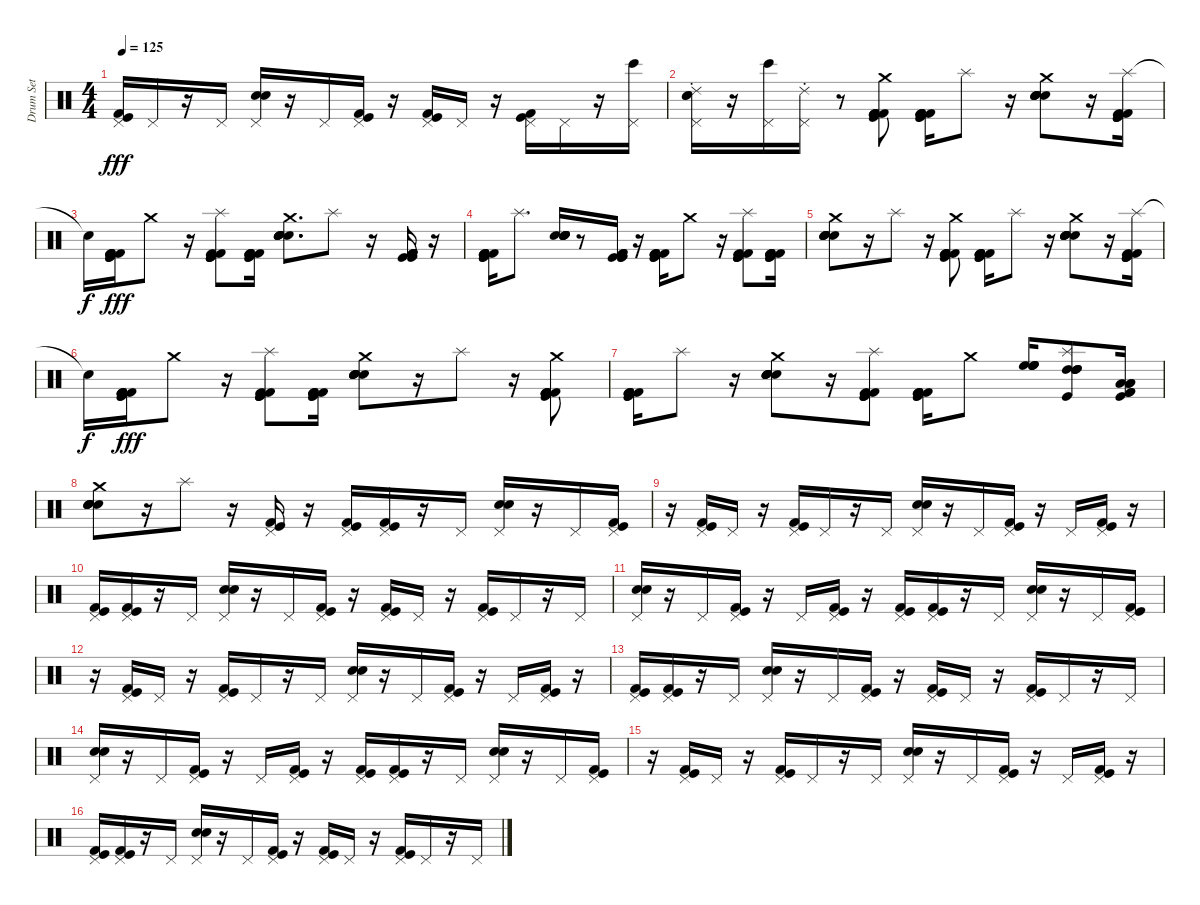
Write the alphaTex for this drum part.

\track ("Drum Set" "Drum Set") {instrument percussion}
\staff {score}
\articulation defaults
\ts (4 4)
\tempo 125
\clef neutral
\ks c
("Kick (hit)" "Kick (hit) 2" "Pedal Hi-Hat (hit)").16{dy fff} "Pedal Hi-Hat (hit)".16 r.16 "Pedal Hi-Hat (hit)".16 ("Electric Snare (hit)" "Snare (hit) 2" "Pedal Hi-Hat (hit)").16 r.16 "Pedal Hi-Hat (hit)".16 ("Kick (hit)" "Kick (hit) 2" "Pedal Hi-Hat (hit)").16 r.16 ("Kick (hit) 2" "Kick (hit)" "Pedal Hi-Hat (hit)").16 "Pedal Hi-Hat (hit)".16 r.16 ("Kick (hit)" "Kick (hit) 2" "Pedal Hi-Hat (hit)").16 "Pedal Hi-Hat (hit)".16 r.16 ("Bongo High (hit)" "Pedal Hi-Hat (hit)").16 |
("Ride (choke) 2" "Snare (hit) 2" "Electric Snare (hit)" "Pedal Hi-Hat (hit)").16 r.16 ("Bongo High (hit)" "Pedal Hi-Hat (hit)").16 ("Ride (choke) 2" "Pedal Hi-Hat (hit)").16 r.8 ("Crash medium (hit)" "Kick (hit) 2" "Kick (hit)" "Kick (hit) 2" "Kick (hit) 2" "Kick (hit) 2").8 ("Kick (hit) 2" "Kick (hit)" "Kick (hit) 2" "Kick (hit) 2" "Kick (hit) 2" "Kick (hit)").16 "Splash (hit)".8 r.16 ("Crash medium (hit)" "Snare (hit) 2" "Electric Snare (hit)" "Electric Snare (hit)" "Electric Snare (hit)" "Electric Snare (hit)").8 r.16 ("Splash (hit)" "Kick (hit)" "Kick (hit)" "Kick (hit)" "Kick (hit) 2" "Kick (hit) 2").16 |
"Snare (hit)"{t}.16{dy f} ("Kick (hit)" "Kick (hit) 2" "Kick (hit) 2" "Kick (hit) 2" "Kick (hit) 2" "Kick (hit)").16{dy fff} "Crash medium (hit)".8 r.16 ("Splash (hit)" "Kick (hit)" "Kick (hit)" "Kick (hit)" "Kick (hit) 2" "Kick (hit) 2").8 ("Kick (hit)" "Kick (hit) 2" "Kick (hit) 2" "Kick (hit) 2" "Kick (hit) 2" "Kick (hit)").16 ("Crash medium (hit)" "Electric Snare (hit)" "Electric Snare (hit)" "Snare (hit) 2" "Snare (hit) 2" "Snare (hit) 2").8{d} "Splash (hit)".8 r.16 ("Kick (hit) 2" "Kick (hit)" "Kick (hit) 2" "Kick (hit) 2" "Kick (hit) 2" "Kick (hit)").16 r.16 |
("Kick (hit) 2" "Kick (hit)" "Kick (hit) 2" "Kick (hit) 2" "Kick (hit) 2" "Kick (hit)").16 "Splash (hit)".8{d} ("Snare (hit) 2" "Electric Snare (hit)" "Electric Snare (hit)" "Electric Snare (hit)" "Electric Snare (hit)" "Snare (hit) 2").16 r.8 ("Kick (hit)" "Kick (hit)" "Kick (hit)" "Kick (hit) 2" "Kick (hit) 2" "Kick (hit) 2").16 r.16 ("Kick (hit)" "Kick (hit) 2" "Kick (hit) 2" "Kick (hit) 2" "Kick (hit) 2" "Kick (hit)").16 "Crash medium (hit)".8 r.16 ("Splash (hit)" "Kick (hit)" "Kick (hit)" "Kick (hit)" "Kick (hit) 2" "Kick (hit) 2").8 ("Kick (hit)" "Kick (hit) 2" "Kick (hit) 2" "Kick (hit) 2" "Kick (hit) 2" "Kick (hit)").16 |
("Crash medium (hit)" "Electric Snare (hit)" "Electric Snare (hit)" "Snare (hit) 2" "Snare (hit) 2" "Snare (hit) 2").8 r.16 "Splash (hit)".8 r.16 ("Crash medium (hit)" "Kick (hit) 2" "Kick (hit)" "Kick (hit) 2" "Kick (hit) 2" "Kick (hit) 2").8 ("Kick (hit) 2" "Kick (hit)" "Kick (hit) 2" "Kick (hit) 2" "Kick (hit) 2" "Kick (hit)").16 "Splash (hit)".8 r.16 ("Crash medium (hit)" "Snare (hit) 2" "Electric Snare (hit)" "Electric Snare (hit)" "Electric Snare (hit)" "Electric Snare (hit)").8 r.16 ("Splash (hit)" "Kick (hit)" "Kick (hit)" "Kick (hit)" "Kick (hit) 2" "Kick (hit) 2").16 |
"Snare (hit)"{t}.16{dy f} ("Kick (hit)" "Kick (hit) 2" "Kick (hit) 2" "Kick (hit) 2" "Kick (hit) 2" "Kick (hit)").16{dy fff} "Crash medium (hit)".8 r.16 ("Splash (hit)" "Kick (hit)" "Kick (hit)" "Kick (hit)" "Kick (hit) 2" "Kick (hit) 2").8 ("Kick (hit)" "Kick (hit) 2" "Kick (hit) 2" "Kick (hit) 2" "Kick (hit) 2" "Kick (hit)").16 ("Crash medium (hit)" "Electric Snare (hit)" "Electric Snare (hit)" "Snare (hit) 2" "Snare (hit) 2" "Snare (hit) 2").8 r.16 "Splash (hit)".8 r.16 ("Crash medium (hit)" "Kick (hit) 2" "Kick (hit)" "Kick (hit) 2" "Kick (hit) 2" "Kick (hit) 2").8 |
("Kick (hit) 2" "Kick (hit)" "Kick (hit) 2" "Kick (hit) 2" "Kick (hit) 2" "Kick (hit)").16 "Splash (hit)".8 r.16 ("Crash medium (hit)" "Snare (hit) 2" "Electric Snare (hit)" "Electric Snare (hit)" "Electric Snare (hit)" "Electric Snare (hit)").8 r.16 ("Splash (hit)" "Kick (hit)" "Kick (hit)" "Kick (hit)" "Kick (hit) 2" "Kick (hit) 2").8 ("Kick (hit)" "Kick (hit) 2" "Kick (hit) 2" "Kick (hit) 2" "Kick (hit) 2" "Kick (hit)").16 "Crash medium (hit)".8 ("High Floor Tom (hit)" "High Floor Tom (hit)" "High Floor Tom (hit)" "High Floor Tom (hit)").16 ("Splash (hit)" "High Tom (hit)" "High Tom (hit)" "High Tom (hit)" "High Tom (hit)" "Kick (hit)").8 ("Low Tom (hit)" "Low Tom (hit)" "Low Tom (hit)" "Kick (hit)" "Kick (hit) 2" "Kick (hit) 2").16 |
("Crash medium (hit)" "Electric Snare (hit)" "Electric Snare (hit)" "Snare (hit) 2" "Snare (hit) 2" "Snare (hit) 2").8 r.16 "Splash (hit)".8 r.16 ("Pedal Hi-Hat (hit)" "Kick (hit) 2" "Kick (hit)").16 r.16 ("Kick (hit)" "Kick (hit) 2" "Pedal Hi-Hat (hit)").16 ("Kick (hit) 2" "Kick (hit)" "Pedal Hi-Hat (hit)").16 r.16 "Pedal Hi-Hat (hit)".16 ("Electric Snare (hit)" "Snare (hit) 2" "Pedal Hi-Hat (hit)").16 r.16 "Pedal Hi-Hat (hit)".16 ("Kick (hit)" "Kick (hit) 2" "Pedal Hi-Hat (hit)").16 |
r.16 ("Kick (hit)" "Kick (hit) 2" "Pedal Hi-Hat (hit)").16 "Pedal Hi-Hat (hit)".16 r.16 ("Kick (hit)" "Kick (hit) 2" "Pedal Hi-Hat (hit)").16 "Pedal Hi-Hat (hit)".16 r.16 "Pedal Hi-Hat (hit)".16 ("Electric Snare (hit)" "Snare (hit) 2" "Pedal Hi-Hat (hit)").16 r.16 "Pedal Hi-Hat (hit)".16 ("Kick (hit)" "Kick (hit) 2" "Pedal Hi-Hat (hit)").16 r.16 "Pedal Hi-Hat (hit)".16 ("Pedal Hi-Hat (hit)" "Kick (hit) 2" "Kick (hit)").16 r.16 |
("Kick (hit)" "Kick (hit) 2" "Pedal Hi-Hat (hit)").16 ("Kick (hit) 2" "Kick (hit)" "Pedal Hi-Hat (hit)").16 r.16 "Pedal Hi-Hat (hit)".16 ("Electric Snare (hit)" "Snare (hit) 2" "Pedal Hi-Hat (hit)").16 r.16 "Pedal Hi-Hat (hit)".16 ("Kick (hit)" "Kick (hit) 2" "Pedal Hi-Hat (hit)").16 r.16 ("Kick (hit)" "Kick (hit) 2" "Pedal Hi-Hat (hit)").16 "Pedal Hi-Hat (hit)".16 r.16 ("Kick (hit)" "Kick (hit) 2" "Pedal Hi-Hat (hit)").16 "Pedal Hi-Hat (hit)".16 r.16 "Pedal Hi-Hat (hit)".16 |
("Electric Snare (hit)" "Snare (hit) 2" "Pedal Hi-Hat (hit)").16 r.16 "Pedal Hi-Hat (hit)".16 ("Kick (hit)" "Kick (hit) 2" "Pedal Hi-Hat (hit)").16 r.16 "Pedal Hi-Hat (hit)".16 ("Pedal Hi-Hat (hit)" "Kick (hit) 2" "Kick (hit)").16 r.16 ("Kick (hit)" "Kick (hit) 2" "Pedal Hi-Hat (hit)").16 ("Kick (hit) 2" "Kick (hit)" "Pedal Hi-Hat (hit)").16 r.16 "Pedal Hi-Hat (hit)".16 ("Electric Snare (hit)" "Snare (hit) 2" "Pedal Hi-Hat (hit)").16 r.16 "Pedal Hi-Hat (hit)".16 ("Kick (hit)" "Kick (hit) 2" "Pedal Hi-Hat (hit)").16 |
r.16 ("Kick (hit)" "Kick (hit) 2" "Pedal Hi-Hat (hit)").16 "Pedal Hi-Hat (hit)".16 r.16 ("Kick (hit)" "Kick (hit) 2" "Pedal Hi-Hat (hit)").16 "Pedal Hi-Hat (hit)".16 r.16 "Pedal Hi-Hat (hit)".16 ("Electric Snare (hit)" "Snare (hit) 2" "Pedal Hi-Hat (hit)").16 r.16 "Pedal Hi-Hat (hit)".16 ("Kick (hit)" "Kick (hit) 2" "Pedal Hi-Hat (hit)").16 r.16 "Pedal Hi-Hat (hit)".16 ("Pedal Hi-Hat (hit)" "Kick (hit) 2" "Kick (hit)").16 r.16 |
("Kick (hit)" "Kick (hit) 2" "Pedal Hi-Hat (hit)").16 ("Kick (hit) 2" "Kick (hit)" "Pedal Hi-Hat (hit)").16 r.16 "Pedal Hi-Hat (hit)".16 ("Electric Snare (hit)" "Snare (hit) 2" "Pedal Hi-Hat (hit)").16 r.16 "Pedal Hi-Hat (hit)".16 ("Kick (hit)" "Kick (hit) 2" "Pedal Hi-Hat (hit)").16 r.16 ("Kick (hit)" "Kick (hit) 2" "Pedal Hi-Hat (hit)").16 "Pedal Hi-Hat (hit)".16 r.16 ("Kick (hit)" "Kick (hit) 2" "Pedal Hi-Hat (hit)").16 "Pedal Hi-Hat (hit)".16 r.16 "Pedal Hi-Hat (hit)".16 |
("Electric Snare (hit)" "Snare (hit) 2" "Pedal Hi-Hat (hit)").16 r.16 "Pedal Hi-Hat (hit)".16 ("Kick (hit)" "Kick (hit) 2" "Pedal Hi-Hat (hit)").16 r.16 "Pedal Hi-Hat (hit)".16 ("Pedal Hi-Hat (hit)" "Kick (hit) 2" "Kick (hit)").16 r.16 ("Kick (hit)" "Kick (hit) 2" "Pedal Hi-Hat (hit)").16 ("Kick (hit) 2" "Kick (hit)" "Pedal Hi-Hat (hit)").16 r.16 "Pedal Hi-Hat (hit)".16 ("Electric Snare (hit)" "Snare (hit) 2" "Pedal Hi-Hat (hit)").16 r.16 "Pedal Hi-Hat (hit)".16 ("Kick (hit)" "Kick (hit) 2" "Pedal Hi-Hat (hit)").16 |
r.16 ("Kick (hit)" "Kick (hit) 2" "Pedal Hi-Hat (hit)").16 "Pedal Hi-Hat (hit)".16 r.16 ("Kick (hit)" "Kick (hit) 2" "Pedal Hi-Hat (hit)").16 "Pedal Hi-Hat (hit)".16 r.16 "Pedal Hi-Hat (hit)".16 ("Electric Snare (hit)" "Snare (hit) 2" "Pedal Hi-Hat (hit)").16 r.16 "Pedal Hi-Hat (hit)".16 ("Kick (hit)" "Kick (hit) 2" "Pedal Hi-Hat (hit)").16 r.16 "Pedal Hi-Hat (hit)".16 ("Pedal Hi-Hat (hit)" "Kick (hit) 2" "Kick (hit)").16 r.16 |
("Kick (hit)" "Kick (hit) 2" "Pedal Hi-Hat (hit)").16 ("Kick (hit) 2" "Kick (hit)" "Pedal Hi-Hat (hit)").16 r.16 "Pedal Hi-Hat (hit)".16 ("Electric Snare (hit)" "Snare (hit) 2" "Pedal Hi-Hat (hit)").16 r.16 "Pedal Hi-Hat (hit)".16 ("Kick (hit)" "Kick (hit) 2" "Pedal Hi-Hat (hit)").16 r.16 ("Kick (hit)" "Kick (hit) 2" "Pedal Hi-Hat (hit)").16 "Pedal Hi-Hat (hit)".16 r.16 ("Kick (hit)" "Kick (hit) 2" "Pedal Hi-Hat (hit)").16 "Pedal Hi-Hat (hit)".16 r.16 "Pedal Hi-Hat (hit)".16
